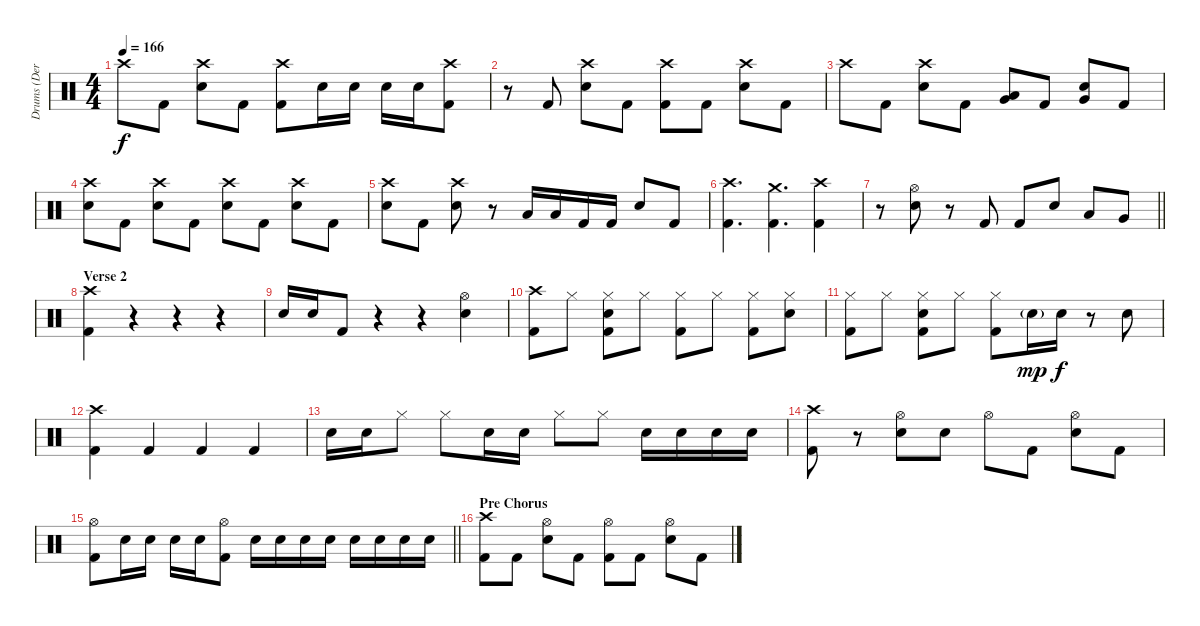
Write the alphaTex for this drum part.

\track ("Drums (Derek)" "Drums (Der") {instrument percussion}
\staff {score}
\articulation defaults
\ts (4 4)
\tempo 166
\clef neutral
\ks c "Crash high (hit)".8{dy f} "Kick (hit) 2".8
("Crash high (hit)" "Electric Snare (hit)").8 "Kick (hit) 2".8 ("Crash high (hit)" "Kick (hit) 2").8 "Electric Snare (hit)".16 "Electric Snare (hit)".16 "Electric Snare (hit)".16 "Electric Snare (hit)".16 ("Crash high (hit)" "Kick (hit) 2").8 |
r.8 "Kick (hit) 2".8 ("Crash high (hit)" "Electric Snare (hit)").8 "Kick (hit) 2".8 ("Crash high (hit)" "Kick (hit) 2").8 "Kick (hit) 2".8 ("Crash high (hit)" "Electric Snare (hit)").8 "Kick (hit) 2".8 |
"Crash high (hit)".8 "Kick (hit) 2".8 ("Crash high (hit)" "Electric Snare (hit)").8 "Kick (hit) 2".8 ("Low Tom (hit)" "Very Low Tom (hit)").8 "Kick (hit) 2".8 ("Very Low Tom (hit)" "Electric Snare (hit)").8 "Kick (hit) 2".8 |
("Crash high (hit)" "Electric Snare (hit)").8 "Kick (hit) 2".8 ("Crash high (hit)" "Electric Snare (hit)").8 "Kick (hit) 2".8 ("Crash high (hit)" "Electric Snare (hit)").8 "Kick (hit) 2".8 ("Crash high (hit)" "Electric Snare (hit)").8 "Kick (hit) 2".8 |
("Crash high (hit)" "Electric Snare (hit)").8 "Kick (hit) 2".8 ("Crash high (hit)" "Electric Snare (hit)").8 r.8 "Low Tom (hit)".16 "Low Tom (hit)".16 "Kick (hit) 2".16 "Kick (hit) 2".16 "Electric Snare (hit)".8 "Kick (hit) 2".8 |
("Crash high (hit)" "Kick (hit) 2").4{d} ("Crash medium (hit)" "Kick (hit) 2").4{d} ("Crash high (hit)" "Kick (hit) 2").4 |
\barLineRight lightlight
r.8 ("Hi-Hat (open)" "Electric Snare (hit)").8 r.8 "Kick (hit) 2".8 "Kick (hit) 2".8 "Electric Snare (hit)".8 "Low Tom (hit)".8 "Very Low Tom (hit)".8 |
\section ("" "Verse 2")
("Crash high (hit)" "Kick (hit) 2").4 r.4 r.4 r.4 |
"Electric Snare (hit)".16 "Electric Snare (hit)".16 "Kick (hit) 2".8 r.4 r.4 ("Hi-Hat (open)" "Electric Snare (hit)").4 |
("Crash high (hit)" "Kick (hit) 2").8 "Hi-Hat (closed)".8 ("Hi-Hat (closed)" "Electric Snare (hit)" "Kick (hit) 2").8 "Hi-Hat (closed)".8 ("Hi-Hat (closed)" "Kick (hit) 2").8 "Hi-Hat (closed)".8 ("Hi-Hat (closed)" "Kick (hit) 2").8 ("Hi-Hat (closed)" "Electric Snare (hit)").8 |
("Hi-Hat (closed)" "Kick (hit) 2").8 "Hi-Hat (closed)".8 ("Hi-Hat (closed)" "Electric Snare (hit)" "Kick (hit) 2").8 "Hi-Hat (closed)".8 ("Hi-Hat (closed)" "Kick (hit) 2").8 "Electric Snare (hit)"{g}.16{dy mp} "Electric Snare (hit)".16{dy f} r.8 "Electric Snare (hit)".8 |
("Crash high (hit)" "Kick (hit) 2").4 "Kick (hit) 2".4 "Kick (hit) 2".4 "Kick (hit) 2".4 |
"Electric Snare (hit)".16 "Electric Snare (hit)".16 "Hi-Hat (closed)".8 "Hi-Hat (closed)".8 "Electric Snare (hit)".16 "Electric Snare (hit)".16 "Hi-Hat (closed)".8 "Hi-Hat (closed)".8 "Electric Snare (hit)".16 "Electric Snare (hit)".16 "Electric Snare (hit)".16 "Electric Snare (hit)".16 |
("Crash high (hit)" "Kick (hit) 2").8 r.8 ("Hi-Hat (open)" "Electric Snare (hit)").8 "Electric Snare (hit)".8 "Hi-Hat (open)".8 "Kick (hit) 2".8 ("Hi-Hat (open)" "Electric Snare (hit)").8 "Kick (hit) 2".8 |
\barLineRight lightlight
("Hi-Hat (open)" "Kick (hit) 2").8 "Electric Snare (hit)".16 "Electric Snare (hit)".16 "Electric Snare (hit)".16 "Electric Snare (hit)".16 ("Hi-Hat (open)" "Kick (hit) 2").8 "Electric Snare (hit)".16 "Electric Snare (hit)".16 "Electric Snare (hit)".16 "Electric Snare (hit)".16 "Electric Snare (hit)".16 "Electric Snare (hit)".16 "Electric Snare (hit)".16 "Electric Snare (hit)".16 |
\section ("" "Pre Chorus")
("Crash high (hit)" "Kick (hit) 2").8 "Kick (hit) 2".8 ("Hi-Hat (open)" "Electric Snare (hit)").8 "Kick (hit) 2".8 ("Hi-Hat (open)" "Kick (hit) 2").8 "Kick (hit) 2".8 ("Hi-Hat (open)" "Electric Snare (hit)").8 "Kick (hit) 2".8
